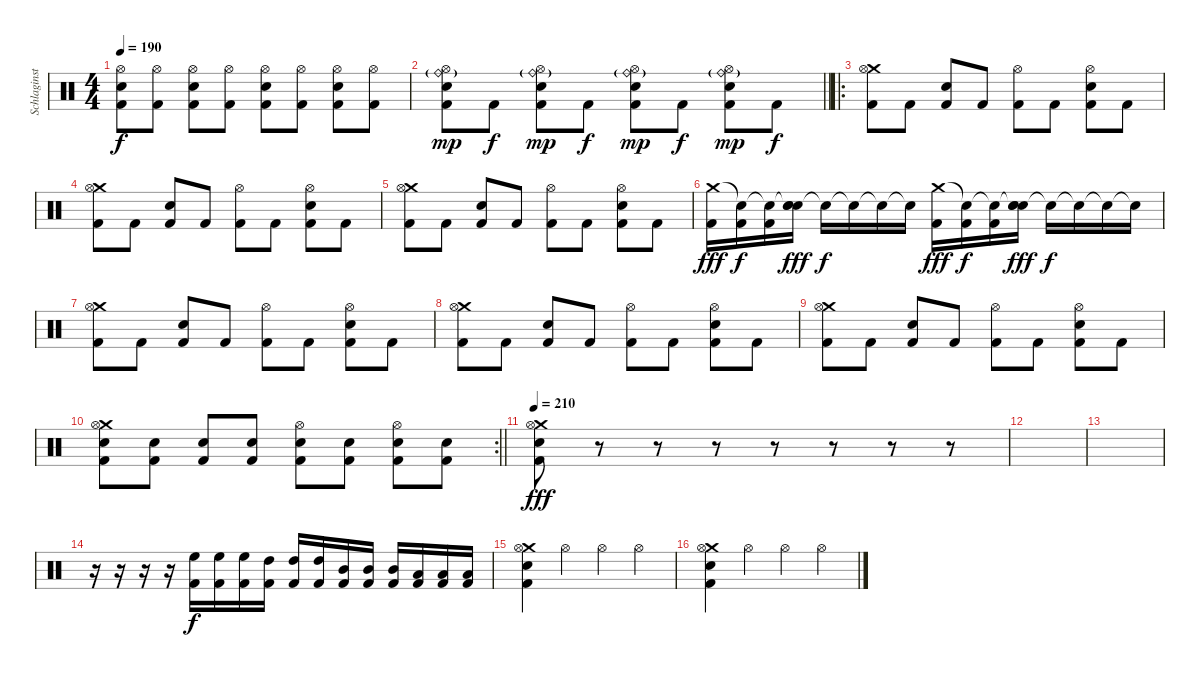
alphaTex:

\track ("Schlaginstrumente - Auswahl" "Schlaginst") {instrument percussion}
\staff {score}
\articulation defaults
\ts (4 4)
\tempo 190
\clef neutral
\ks c
("Hi-Hat (open)" "Snare (hit) 2" "Kick (hit) 2").8{dy f} ("Hi-Hat (open)" "Kick (hit) 2").8 ("Hi-Hat (open)" "Snare (hit) 2" "Kick (hit) 2").8 ("Hi-Hat (open)" "Kick (hit) 2").8 ("Hi-Hat (open)" "Snare (hit) 2" "Kick (hit) 2").8 ("Hi-Hat (open)" "Kick (hit) 2").8 ("Hi-Hat (open)" "Snare (hit) 2" "Kick (hit) 2").8 ("Hi-Hat (open)" "Kick (hit) 2").8 |
\barLineRight lightlight
("Ride (bell)"{g} "Hi-Hat (open)" "Snare (hit) 2" "Kick (hit) 2").8{dy mp} "Kick (hit) 2".8{dy f} ("Ride (bell)"{g} "Hi-Hat (open)" "Snare (hit) 2" "Kick (hit) 2").8{dy mp} "Kick (hit) 2".8{dy f} ("Ride (bell)"{g} "Hi-Hat (open)" "Snare (hit) 2" "Kick (hit) 2").8{dy mp} "Kick (hit) 2".8{dy f} ("Ride (bell)"{g} "Hi-Hat (open)" "Snare (hit) 2" "Kick (hit) 2").8{dy mp} "Kick (hit) 2".8{dy f} |
\ro
("Crash medium (hit)" "Kick (hit) 2" "Hi-Hat (open)").8 "Kick (hit) 2".8 ("Kick (hit) 2" "Snare (hit) 2").8 "Kick (hit) 2".8 ("Kick (hit) 2" "Hi-Hat (open)").8 "Kick (hit) 2".8 ("Kick (hit) 2" "Snare (hit) 2" "Hi-Hat (open)").8 "Kick (hit) 2".8 |
("Crash medium (hit)" "Kick (hit) 2" "Hi-Hat (open)").8 "Kick (hit) 2".8 ("Kick (hit) 2" "Snare (hit) 2").8 "Kick (hit) 2".8 ("Kick (hit) 2" "Hi-Hat (open)").8 "Kick (hit) 2".8 ("Kick (hit) 2" "Snare (hit) 2" "Hi-Hat (open)").8 "Kick (hit) 2".8 |
("Crash medium (hit)" "Kick (hit) 2" "Hi-Hat (open)").8 "Kick (hit) 2".8 ("Kick (hit) 2" "Snare (hit) 2").8 "Kick (hit) 2".8 ("Kick (hit) 2" "Hi-Hat (open)").8 "Kick (hit) 2".8 ("Kick (hit) 2" "Snare (hit) 2" "Hi-Hat (open)").8 "Kick (hit) 2".8 |
("Crash medium (hit)" "Kick (hit) 2").16{dy fff} ("Snare (hit)"{t} "Kick (hit) 2").16{dy f} ("Snare (hit)"{t} "Kick (hit) 2").16 ("Snare (hit)"{t} "Snare (hit) 2" "Snare (hit) 2").16{dy fff} "Snare (hit)"{t}.16{dy f} "Snare (hit)"{t}.16 "Snare (hit)"{t}.16 "Snare (hit)"{t}.16 ("Crash medium (hit)" "Kick (hit) 2").16{dy fff} ("Snare (hit)"{t} "Kick (hit) 2").16{dy f} ("Snare (hit)"{t} "Kick (hit) 2").16 ("Snare (hit)"{t} "Snare (hit) 2" "Snare (hit) 2").16{dy fff} "Snare (hit)"{t}.16{dy f} "Snare (hit)"{t}.16 "Snare (hit)"{t}.16 "Snare (hit)"{t}.16 |
("Crash medium (hit)" "Kick (hit) 2" "Hi-Hat (open)").8 "Kick (hit) 2".8 ("Kick (hit) 2" "Snare (hit) 2").8 "Kick (hit) 2".8 ("Kick (hit) 2" "Hi-Hat (open)").8 "Kick (hit) 2".8 ("Kick (hit) 2" "Snare (hit) 2" "Hi-Hat (open)").8 "Kick (hit) 2".8 |
("Crash medium (hit)" "Kick (hit) 2" "Hi-Hat (open)").8 "Kick (hit) 2".8 ("Kick (hit) 2" "Snare (hit) 2").8 "Kick (hit) 2".8 ("Kick (hit) 2" "Hi-Hat (open)").8 "Kick (hit) 2".8 ("Kick (hit) 2" "Snare (hit) 2" "Hi-Hat (open)").8 "Kick (hit) 2".8 |
("Crash medium (hit)" "Kick (hit) 2" "Hi-Hat (open)").8 "Kick (hit) 2".8 ("Kick (hit) 2" "Snare (hit) 2").8 "Kick (hit) 2".8 ("Kick (hit) 2" "Hi-Hat (open)").8 "Kick (hit) 2".8 ("Kick (hit) 2" "Snare (hit) 2" "Hi-Hat (open)").8 "Kick (hit) 2".8 |
\rc 2
\barLineRight lightlight
("Crash medium (hit)" "Kick (hit) 2" "Snare (hit) 2" "Hi-Hat (open)").8 ("Kick (hit) 2" "Snare (hit) 2").8 ("Kick (hit) 2" "Snare (hit) 2").8 ("Kick (hit) 2" "Snare (hit) 2").8 ("Kick (hit) 2" "Snare (hit) 2" "Hi-Hat (open)").8 ("Kick (hit) 2" "Snare (hit) 2").8 ("Kick (hit) 2" "Snare (hit) 2" "Hi-Hat (open)").8 ("Kick (hit) 2" "Snare (hit) 2").8 |
\tempo 210
("Crash medium (hit)" "Kick (hit) 2" "Snare (hit) 2" "Hi-Hat (open)").8{dy fff} r.8 r.8 r.8 r.8 r.8 r.8 r.8 |
|
|
r.16 r.16 r.16 r.16 ("High Floor Tom (hit)" "Kick (hit) 2").16{dy f} ("High Floor Tom (hit)" "Kick (hit) 2").16 ("High Floor Tom (hit)" "Kick (hit) 2").16 ("High Tom (hit)" "Kick (hit) 2").16 ("High Tom (hit)" "Kick (hit) 2").16 ("High Tom (hit)" "Kick (hit) 2").16 ("Mid Tom (hit)" "Kick (hit) 2").16 ("Mid Tom (hit)" "Kick (hit) 2").16 ("Mid Tom (hit)" "Kick (hit) 2").16 ("Low Tom (hit)" "Kick (hit) 2").16 ("Low Tom (hit)" "Kick (hit) 2").16 ("Low Tom (hit)" "Kick (hit) 2").16 |
("Crash medium (hit)" "Kick (hit) 2" "Hi-Hat (open)" "Snare (hit) 2").4 "Hi-Hat (open)".4 "Hi-Hat (open)".4 "Hi-Hat (open)".4 |
("Crash medium (hit)" "Kick (hit) 2" "Hi-Hat (open)" "Snare (hit) 2").4 "Hi-Hat (open)".4 "Hi-Hat (open)".4 "Hi-Hat (open)".4
